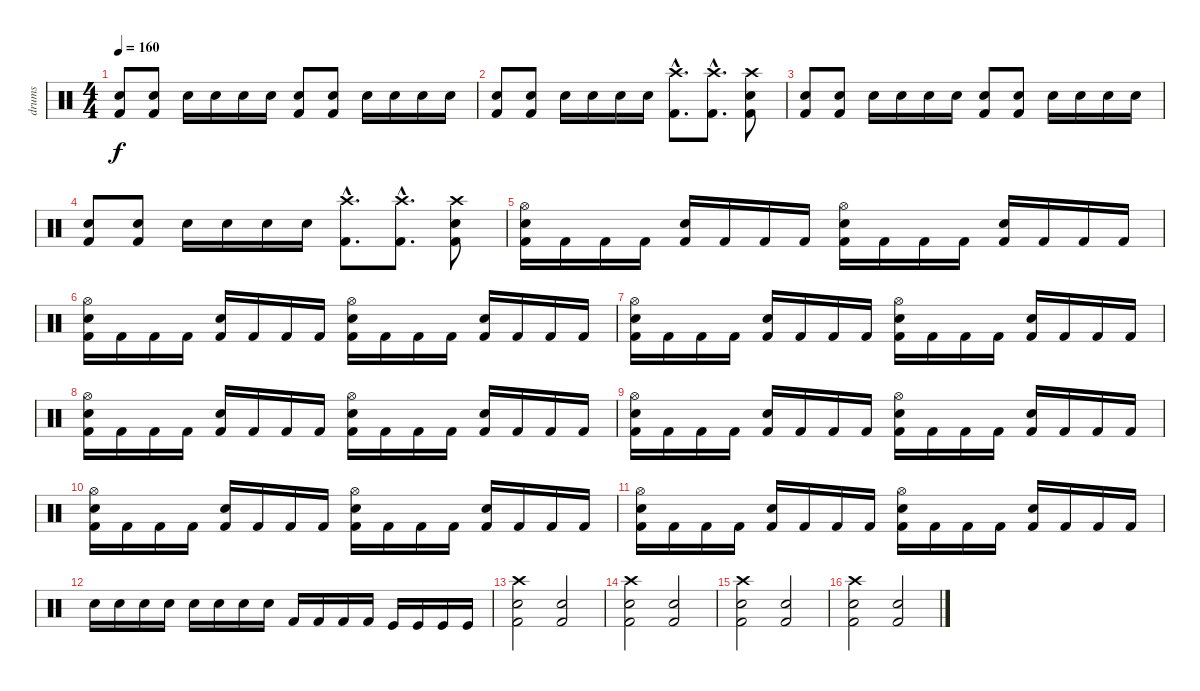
\track ("drums" "drums") {instrument percussion}
\staff {score}
\articulation defaults
\ts (4 4)
\tempo 160
\clef neutral
\ks c
("Electric Snare (hit)" "Kick (hit) 2").8{dy f volume 10} ("Electric Snare (hit)" "Kick (hit) 2").8 "Electric Snare (hit)".16 "Electric Snare (hit)".16 "Electric Snare (hit)".16 "Electric Snare (hit)".16 ("Electric Snare (hit)" "Kick (hit) 2").8 ("Electric Snare (hit)" "Kick (hit) 2").8 "Electric Snare (hit)".16 "Electric Snare (hit)".16 "Electric Snare (hit)".16 "Electric Snare (hit)".16 |
("Electric Snare (hit)" "Kick (hit) 2").8 ("Electric Snare (hit)" "Kick (hit) 2").8 "Electric Snare (hit)".16 "Electric Snare (hit)".16 "Electric Snare (hit)".16 "Electric Snare (hit)".16 ("Crash high (hit)"{hac} "Kick (hit) 2"{hac}).8{d} ("Crash high (hit)"{hac} "Kick (hit) 2"{hac}).8{d} ("Crash high (hit)" "Electric Snare (hit)" "Kick (hit) 2").8 |
("Electric Snare (hit)" "Kick (hit) 2").8{volume 10} ("Electric Snare (hit)" "Kick (hit) 2").8 "Electric Snare (hit)".16 "Electric Snare (hit)".16 "Electric Snare (hit)".16 "Electric Snare (hit)".16 ("Electric Snare (hit)" "Kick (hit) 2").8 ("Electric Snare (hit)" "Kick (hit) 2").8 "Electric Snare (hit)".16 "Electric Snare (hit)".16 "Electric Snare (hit)".16 "Electric Snare (hit)".16 |
("Electric Snare (hit)" "Kick (hit) 2").8 ("Electric Snare (hit)" "Kick (hit) 2").8 "Electric Snare (hit)".16 "Electric Snare (hit)".16 "Electric Snare (hit)".16 "Electric Snare (hit)".16 ("Crash high (hit)"{hac} "Kick (hit) 2"{hac}).8{d} ("Crash high (hit)"{hac} "Kick (hit) 2"{hac}).8{d} ("Crash high (hit)" "Electric Snare (hit)" "Kick (hit) 2").8 |
("Hi-Hat (open)" "Electric Snare (hit)" "Kick (hit) 2").16{volume 12} "Kick (hit) 2".16 "Kick (hit) 2".16 "Kick (hit) 2".16 ("Electric Snare (hit)" "Kick (hit) 2").16 "Kick (hit) 2".16 "Kick (hit) 2".16 "Kick (hit) 2".16 ("Hi-Hat (open)" "Electric Snare (hit)" "Kick (hit) 2").16 "Kick (hit) 2".16 "Kick (hit) 2".16 "Kick (hit) 2".16 ("Electric Snare (hit)" "Kick (hit) 2").16 "Kick (hit) 2".16 "Kick (hit) 2".16 "Kick (hit) 2".16 |
("Hi-Hat (open)" "Electric Snare (hit)" "Kick (hit) 2").16 "Kick (hit) 2".16 "Kick (hit) 2".16 "Kick (hit) 2".16 ("Electric Snare (hit)" "Kick (hit) 2").16 "Kick (hit) 2".16 "Kick (hit) 2".16 "Kick (hit) 2".16 ("Hi-Hat (open)" "Electric Snare (hit)" "Kick (hit) 2").16 "Kick (hit) 2".16 "Kick (hit) 2".16 "Kick (hit) 2".16 ("Electric Snare (hit)" "Kick (hit) 2").16 "Kick (hit) 2".16 "Kick (hit) 2".16 "Kick (hit) 2".16 |
("Hi-Hat (open)" "Electric Snare (hit)" "Kick (hit) 2").16 "Kick (hit) 2".16 "Kick (hit) 2".16 "Kick (hit) 2".16 ("Electric Snare (hit)" "Kick (hit) 2").16 "Kick (hit) 2".16 "Kick (hit) 2".16 "Kick (hit) 2".16 ("Hi-Hat (open)" "Electric Snare (hit)" "Kick (hit) 2").16 "Kick (hit) 2".16 "Kick (hit) 2".16 "Kick (hit) 2".16 ("Electric Snare (hit)" "Kick (hit) 2").16 "Kick (hit) 2".16 "Kick (hit) 2".16 "Kick (hit) 2".16 |
("Hi-Hat (open)" "Electric Snare (hit)" "Kick (hit) 2").16 "Kick (hit) 2".16 "Kick (hit) 2".16 "Kick (hit) 2".16 ("Electric Snare (hit)" "Kick (hit) 2").16 "Kick (hit) 2".16 "Kick (hit) 2".16 "Kick (hit) 2".16 ("Hi-Hat (open)" "Electric Snare (hit)" "Kick (hit) 2").16 "Kick (hit) 2".16 "Kick (hit) 2".16 "Kick (hit) 2".16 ("Electric Snare (hit)" "Kick (hit) 2").16 "Kick (hit) 2".16 "Kick (hit) 2".16 "Kick (hit) 2".16 |
("Hi-Hat (open)" "Electric Snare (hit)" "Kick (hit) 2").16 "Kick (hit) 2".16 "Kick (hit) 2".16 "Kick (hit) 2".16 ("Electric Snare (hit)" "Kick (hit) 2").16 "Kick (hit) 2".16 "Kick (hit) 2".16 "Kick (hit) 2".16 ("Hi-Hat (open)" "Electric Snare (hit)" "Kick (hit) 2").16 "Kick (hit) 2".16 "Kick (hit) 2".16 "Kick (hit) 2".16 ("Electric Snare (hit)" "Kick (hit) 2").16 "Kick (hit) 2".16 "Kick (hit) 2".16 "Kick (hit) 2".16 |
("Hi-Hat (open)" "Electric Snare (hit)" "Kick (hit) 2").16 "Kick (hit) 2".16 "Kick (hit) 2".16 "Kick (hit) 2".16 ("Electric Snare (hit)" "Kick (hit) 2").16 "Kick (hit) 2".16 "Kick (hit) 2".16 "Kick (hit) 2".16 ("Hi-Hat (open)" "Electric Snare (hit)" "Kick (hit) 2").16 "Kick (hit) 2".16 "Kick (hit) 2".16 "Kick (hit) 2".16 ("Electric Snare (hit)" "Kick (hit) 2").16 "Kick (hit) 2".16 "Kick (hit) 2".16 "Kick (hit) 2".16 |
("Hi-Hat (open)" "Electric Snare (hit)" "Kick (hit) 2").16 "Kick (hit) 2".16 "Kick (hit) 2".16 "Kick (hit) 2".16 ("Electric Snare (hit)" "Kick (hit) 2").16 "Kick (hit) 2".16 "Kick (hit) 2".16 "Kick (hit) 2".16 ("Hi-Hat (open)" "Electric Snare (hit)" "Kick (hit) 2").16 "Kick (hit) 2".16 "Kick (hit) 2".16 "Kick (hit) 2".16 ("Electric Snare (hit)" "Kick (hit) 2").16 "Kick (hit) 2".16 "Kick (hit) 2".16 "Kick (hit) 2".16 |
"Electric Snare (hit)".16 "Electric Snare (hit)".16 "Electric Snare (hit)".16 "Electric Snare (hit)".16 "Snare (hit) 2".16 "Snare (hit) 2".16 "Snare (hit) 2".16 "Snare (hit) 2".16 "Kick (hit) 2".16 "Kick (hit) 2".16 "Kick (hit) 2".16 "Kick (hit) 2".16 "Kick (hit)".16 "Kick (hit)".16 "Kick (hit)".16 "Kick (hit)".16 |
("Crash high (hit)" "Electric Snare (hit)" "Kick (hit) 2").2 ("Snare (hit) 2" "Kick (hit) 2").2 |
("Crash high (hit)" "Electric Snare (hit)" "Kick (hit) 2").2 ("Snare (hit) 2" "Kick (hit) 2").2 |
("Crash high (hit)" "Electric Snare (hit)" "Kick (hit) 2").2 ("Snare (hit) 2" "Kick (hit) 2").2 |
("Crash high (hit)" "Electric Snare (hit)" "Kick (hit) 2").2 ("Snare (hit) 2" "Kick (hit) 2").2
